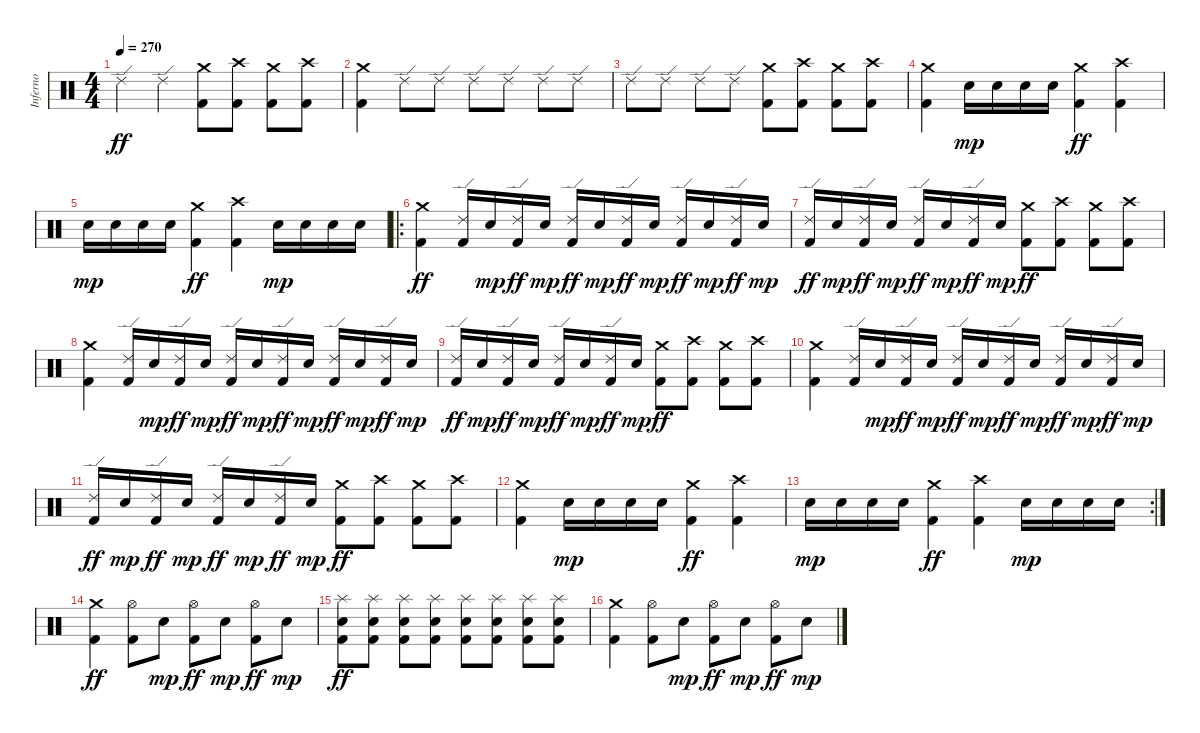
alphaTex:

\track ("Inferno" "Inferno") {instrument percussion}
\staff {score}
\articulation defaults
\ts (4 4)
\tempo 270
\clef neutral
\ks c "Ride (edge) 2".4{dy ff} "Ride (edge) 2".4
("Kick (hit) 2" "Crash medium (hit)").8 ("Kick (hit) 2" "Crash high (hit)").8 ("Kick (hit) 2" "Crash medium (hit)").8 ("Kick (hit) 2" "Crash high (hit)").8 |
("Kick (hit) 2" "Crash medium (hit)").4 "Ride (edge) 2".8 "Ride (edge) 2".8 "Ride (edge) 2".8 "Ride (edge) 2".8 "Ride (edge) 2".8 "Ride (edge) 2".8 |
"Ride (edge) 2".8 "Ride (edge) 2".8 "Ride (edge) 2".8 "Ride (edge) 2".8 ("Kick (hit) 2" "Crash medium (hit)").8 ("Kick (hit) 2" "Crash high (hit)").8 ("Kick (hit) 2" "Crash medium (hit)").8 ("Kick (hit) 2" "Crash high (hit)").8 |
("Kick (hit) 2" "Crash medium (hit)").4 "Electric Snare (hit)".16{dy mp} "Electric Snare (hit)".16 "Electric Snare (hit)".16 "Electric Snare (hit)".16 ("Kick (hit) 2" "Crash medium (hit)").4{dy ff} ("Kick (hit) 2" "Crash high (hit)").4 |
"Electric Snare (hit)".16{dy mp} "Electric Snare (hit)".16 "Electric Snare (hit)".16 "Electric Snare (hit)".16 ("Kick (hit) 2" "Crash medium (hit)").4{dy ff} ("Kick (hit) 2" "Crash high (hit)").4 "Electric Snare (hit)".16{dy mp} "Electric Snare (hit)".16 "Electric Snare (hit)".16 "Electric Snare (hit)".16 |
\ro
("Kick (hit) 2" "Crash medium (hit)").4{dy ff} ("Kick (hit) 2" "Ride (edge) 2").16 "Electric Snare (hit)".16{dy mp} ("Kick (hit) 2" "Ride (edge) 2").16{dy ff} "Electric Snare (hit)".16{dy mp} ("Kick (hit) 2" "Ride (edge) 2").16{dy ff} "Electric Snare (hit)".16{dy mp} ("Kick (hit) 2" "Ride (edge) 2").16{dy ff} "Electric Snare (hit)".16{dy mp} ("Kick (hit) 2" "Ride (edge) 2").16{dy ff} "Electric Snare (hit)".16{dy mp} ("Kick (hit) 2" "Ride (edge) 2").16{dy ff} "Electric Snare (hit)".16{dy mp} |
("Kick (hit) 2" "Ride (edge) 2").16{dy ff} "Electric Snare (hit)".16{dy mp} ("Kick (hit) 2" "Ride (edge) 2").16{dy ff} "Electric Snare (hit)".16{dy mp} ("Kick (hit) 2" "Ride (edge) 2").16{dy ff} "Electric Snare (hit)".16{dy mp} ("Kick (hit) 2" "Ride (edge) 2").16{dy ff} "Electric Snare (hit)".16{dy mp} ("Kick (hit) 2" "Crash medium (hit)").8{dy ff} ("Kick (hit) 2" "Crash high (hit)").8 ("Kick (hit) 2" "Crash medium (hit)").8 ("Kick (hit) 2" "Crash high (hit)").8 |
("Kick (hit) 2" "Crash medium (hit)").4 ("Kick (hit) 2" "Ride (edge) 2").16 "Electric Snare (hit)".16{dy mp} ("Kick (hit) 2" "Ride (edge) 2").16{dy ff} "Electric Snare (hit)".16{dy mp} ("Kick (hit) 2" "Ride (edge) 2").16{dy ff} "Electric Snare (hit)".16{dy mp} ("Kick (hit) 2" "Ride (edge) 2").16{dy ff} "Electric Snare (hit)".16{dy mp} ("Kick (hit) 2" "Ride (edge) 2").16{dy ff} "Electric Snare (hit)".16{dy mp} ("Kick (hit) 2" "Ride (edge) 2").16{dy ff} "Electric Snare (hit)".16{dy mp} |
("Kick (hit) 2" "Ride (edge) 2").16{dy ff} "Electric Snare (hit)".16{dy mp} ("Kick (hit) 2" "Ride (edge) 2").16{dy ff} "Electric Snare (hit)".16{dy mp} ("Kick (hit) 2" "Ride (edge) 2").16{dy ff} "Electric Snare (hit)".16{dy mp} ("Kick (hit) 2" "Ride (edge) 2").16{dy ff} "Electric Snare (hit)".16{dy mp} ("Kick (hit) 2" "Crash medium (hit)").8{dy ff} ("Kick (hit) 2" "Crash high (hit)").8 ("Kick (hit) 2" "Crash medium (hit)").8 ("Kick (hit) 2" "Crash high (hit)").8 |
("Kick (hit) 2" "Crash medium (hit)").4 ("Kick (hit) 2" "Ride (edge) 2").16 "Electric Snare (hit)".16{dy mp} ("Kick (hit) 2" "Ride (edge) 2").16{dy ff} "Electric Snare (hit)".16{dy mp} ("Kick (hit) 2" "Ride (edge) 2").16{dy ff} "Electric Snare (hit)".16{dy mp} ("Kick (hit) 2" "Ride (edge) 2").16{dy ff} "Electric Snare (hit)".16{dy mp} ("Kick (hit) 2" "Ride (edge) 2").16{dy ff} "Electric Snare (hit)".16{dy mp} ("Kick (hit) 2" "Ride (edge) 2").16{dy ff} "Electric Snare (hit)".16{dy mp} |
("Kick (hit) 2" "Ride (edge) 2").16{dy ff} "Electric Snare (hit)".16{dy mp} ("Kick (hit) 2" "Ride (edge) 2").16{dy ff} "Electric Snare (hit)".16{dy mp} ("Kick (hit) 2" "Ride (edge) 2").16{dy ff} "Electric Snare (hit)".16{dy mp} ("Kick (hit) 2" "Ride (edge) 2").16{dy ff} "Electric Snare (hit)".16{dy mp} ("Kick (hit) 2" "Crash medium (hit)").8{dy ff} ("Kick (hit) 2" "Crash high (hit)").8 ("Kick (hit) 2" "Crash medium (hit)").8 ("Kick (hit) 2" "Crash high (hit)").8 |
("Kick (hit) 2" "Crash medium (hit)").4 "Electric Snare (hit)".16{dy mp} "Electric Snare (hit)".16 "Electric Snare (hit)".16 "Electric Snare (hit)".16 ("Kick (hit) 2" "Crash medium (hit)").4{dy ff} ("Kick (hit) 2" "Crash high (hit)").4 |
\rc 2 "Electric Snare (hit)".16{dy mp} "Electric Snare (hit)".16 "Electric Snare (hit)".16 "Electric Snare (hit)".16
("Kick (hit) 2" "Crash medium (hit)").4{dy ff} ("Kick (hit) 2" "Crash high (hit)").4 "Electric Snare (hit)".16{dy mp} "Electric Snare (hit)".16 "Electric Snare (hit)".16 "Electric Snare (hit)".16 |
("Kick (hit) 2" "Crash medium (hit)").4{dy ff} ("Kick (hit) 2" "Hi-Hat (open)").8 "Electric Snare (hit)".8{dy mp} ("Kick (hit) 2" "Hi-Hat (open)").8{dy ff} "Electric Snare (hit)".8{dy mp} ("Kick (hit) 2" "Hi-Hat (open)").8{dy ff} "Electric Snare (hit)".8{dy mp} |
("Kick (hit) 2" "Electric Snare (hit)" "Splash (hit)").8{dy ff} ("Kick (hit) 2" "Electric Snare (hit)" "Splash (hit)").8 ("Kick (hit) 2" "Electric Snare (hit)" "Splash (hit)").8 ("Kick (hit) 2" "Electric Snare (hit)" "Splash (hit)").8 ("Kick (hit) 2" "Electric Snare (hit)" "Splash (hit)").8 ("Kick (hit) 2" "Electric Snare (hit)" "Splash (hit)").8 ("Kick (hit) 2" "Electric Snare (hit)" "Splash (hit)").8 ("Kick (hit) 2" "Electric Snare (hit)" "Splash (hit)").8 |
("Kick (hit) 2" "Crash medium (hit)").4 ("Kick (hit) 2" "Hi-Hat (open)").8 "Electric Snare (hit)".8{dy mp} ("Kick (hit) 2" "Hi-Hat (open)").8{dy ff} "Electric Snare (hit)".8{dy mp} ("Kick (hit) 2" "Hi-Hat (open)").8{dy ff} "Electric Snare (hit)".8{dy mp}
